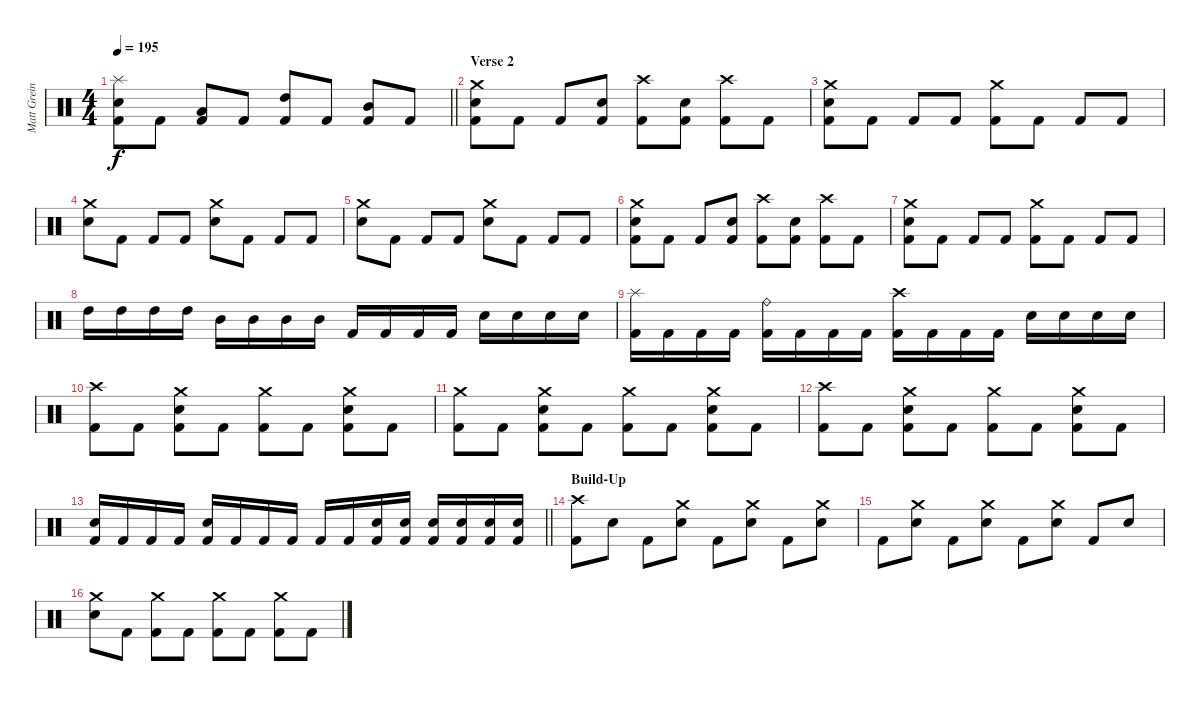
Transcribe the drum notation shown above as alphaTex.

\track ("Matt Greiner" "Matt Grein") {instrument percussion}
\staff {score}
\articulation defaults
\ts (4 4)
\tempo 195
\clef neutral
\barLineRight lightlight
\ks c
("Splash (hit)" "Electric Snare (hit)" "Kick (hit) 2").8{dy f} "Kick (hit) 2".8 ("Low Tom (hit)" "Kick (hit) 2").8 "Kick (hit) 2".8 ("High Tom (hit)" "Kick (hit) 2").8 "Kick (hit) 2".8 ("Mid Tom (hit)" "Kick (hit) 2").8 "Kick (hit) 2".8 |
\section ("" "Verse 2")
("Crash medium (hit)" "Electric Snare (hit)" "Kick (hit) 2").8 "Kick (hit) 2".8 "Kick (hit) 2".8 ("Electric Snare (hit)" "Kick (hit) 2").8 ("Crash high (hit)" "Kick (hit) 2").8 ("Electric Snare (hit)" "Kick (hit) 2").8 ("Crash high (hit)" "Kick (hit) 2").8 "Kick (hit) 2".8 |
("Crash medium (hit)" "Electric Snare (hit)" "Kick (hit) 2").8 "Kick (hit) 2".8 "Kick (hit) 2".8 "Kick (hit) 2".8 ("Crash medium (hit)" "Kick (hit) 2").8 "Kick (hit) 2".8 "Kick (hit) 2".8 "Kick (hit) 2".8 |
("Crash medium (hit)" "Electric Snare (hit)").8 "Kick (hit) 2".8 "Kick (hit) 2".8 "Kick (hit) 2".8 ("Crash medium (hit)" "Electric Snare (hit)").8 "Kick (hit) 2".8 "Kick (hit) 2".8 "Kick (hit) 2".8 |
("Crash medium (hit)" "Electric Snare (hit)").8 "Kick (hit) 2".8 "Kick (hit) 2".8 "Kick (hit) 2".8 ("Crash medium (hit)" "Electric Snare (hit)").8 "Kick (hit) 2".8 "Kick (hit) 2".8 "Kick (hit) 2".8 |
("Crash medium (hit)" "Electric Snare (hit)" "Kick (hit) 2").8 "Kick (hit) 2".8 "Kick (hit) 2".8 ("Electric Snare (hit)" "Kick (hit) 2").8 ("Crash high (hit)" "Kick (hit) 2").8 ("Electric Snare (hit)" "Kick (hit) 2").8 ("Crash high (hit)" "Kick (hit) 2").8 "Kick (hit) 2".8 |
("Crash medium (hit)" "Electric Snare (hit)" "Kick (hit) 2").8 "Kick (hit) 2".8 "Kick (hit) 2".8 "Kick (hit) 2".8 ("Crash medium (hit)" "Kick (hit) 2").8 "Kick (hit) 2".8 "Kick (hit) 2".8 "Kick (hit) 2".8 |
"High Tom (hit)".16 "High Tom (hit)".16 "High Tom (hit)".16 "High Tom (hit)".16 "Mid Tom (hit)".16 "Mid Tom (hit)".16 "Mid Tom (hit)".16 "Mid Tom (hit)".16 "Kick (hit) 2".16 "Kick (hit) 2".16 "Kick (hit) 2".16 "Kick (hit) 2".16 "Electric Snare (hit)".16 "Electric Snare (hit)".16 "Electric Snare (hit)".16 "Electric Snare (hit)".16 |
("Splash (hit)" "Kick (hit) 2").16 "Kick (hit) 2".16 "Kick (hit) 2".16 "Kick (hit) 2".16 ("Ride (bell)" "Kick (hit) 2").16 "Kick (hit) 2".16 "Kick (hit) 2".16 "Kick (hit) 2".16 ("Crash high (hit)" "Kick (hit) 2").16 "Kick (hit) 2".16 "Kick (hit) 2".16 "Kick (hit) 2".16 "Electric Snare (hit)".16 "Electric Snare (hit)".16 "Electric Snare (hit)".16 "Electric Snare (hit)".16 |
("Crash high (hit)" "Kick (hit) 2").8 "Kick (hit) 2".8 ("Crash medium (hit)" "Electric Snare (hit)" "Kick (hit) 2").8 "Kick (hit) 2".8 ("Crash medium (hit)" "Kick (hit) 2").8 "Kick (hit) 2".8 ("Crash medium (hit)" "Electric Snare (hit)" "Kick (hit) 2").8 "Kick (hit) 2".8 |
("Crash medium (hit)" "Kick (hit) 2").8 "Kick (hit) 2".8 ("Crash medium (hit)" "Electric Snare (hit)" "Kick (hit) 2").8 "Kick (hit) 2".8 ("Crash medium (hit)" "Kick (hit) 2").8 "Kick (hit) 2".8 ("Crash medium (hit)" "Electric Snare (hit)" "Kick (hit) 2").8 "Kick (hit) 2".8 |
("Crash high (hit)" "Kick (hit) 2").8 "Kick (hit) 2".8 ("Crash medium (hit)" "Electric Snare (hit)" "Kick (hit) 2").8 "Kick (hit) 2".8 ("Crash medium (hit)" "Kick (hit) 2").8 "Kick (hit) 2".8 ("Crash medium (hit)" "Electric Snare (hit)" "Kick (hit) 2").8 "Kick (hit) 2".8 |
\barLineRight lightlight
("Electric Snare (hit)" "Kick (hit) 2").16 "Kick (hit) 2".16 "Kick (hit) 2".16 "Kick (hit) 2".16 ("Electric Snare (hit)" "Kick (hit) 2").16 "Kick (hit) 2".16 "Kick (hit) 2".16 "Kick (hit) 2".16 "Kick (hit) 2".16 "Kick (hit) 2".16 ("Electric Snare (hit)" "Kick (hit) 2").16 ("Electric Snare (hit)" "Kick (hit) 2").16 ("Electric Snare (hit)" "Kick (hit) 2").16 ("Electric Snare (hit)" "Kick (hit) 2").16 ("Electric Snare (hit)" "Kick (hit) 2").16 ("Electric Snare (hit)" "Kick (hit) 2").16 |
\section ("" "Build-Up")
("Crash high (hit)" "Kick (hit) 2").8 "Electric Snare (hit)".8 "Kick (hit) 2".8 ("Crash medium (hit)" "Electric Snare (hit)").8 "Kick (hit) 2".8 ("Crash medium (hit)" "Electric Snare (hit)").8 "Kick (hit) 2".8 ("Crash medium (hit)" "Electric Snare (hit)").8 |
"Kick (hit) 2".8 ("Crash medium (hit)" "Electric Snare (hit)").8 "Kick (hit) 2".8 ("Crash medium (hit)" "Electric Snare (hit)").8 "Kick (hit) 2".8 ("Crash medium (hit)" "Electric Snare (hit)").8 "Kick (hit) 2".8 "Electric Snare (hit)".8 |
("Crash medium (hit)" "Electric Snare (hit)").8 "Kick (hit) 2".8 ("Crash medium (hit)" "Kick (hit) 2").8 "Kick (hit) 2".8 ("Crash medium (hit)" "Kick (hit) 2").8 "Kick (hit) 2".8 ("Crash medium (hit)" "Kick (hit) 2").8 "Kick (hit) 2".8
